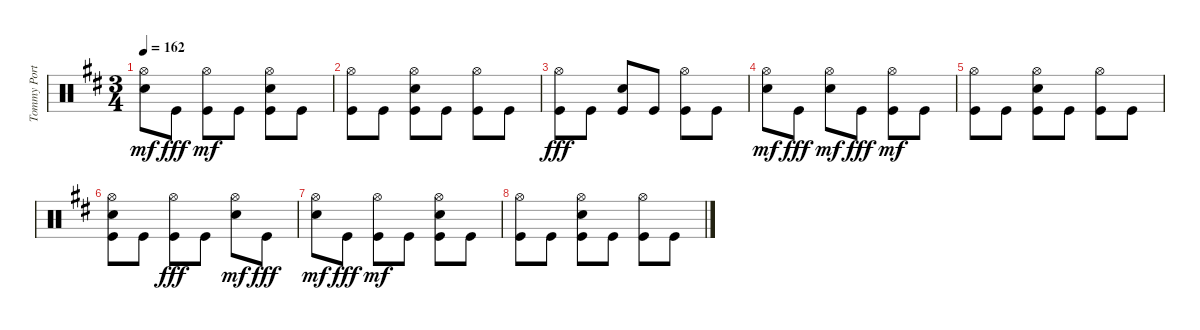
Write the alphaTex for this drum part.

\track ("Tommy Portimo (Drums)" "Tommy Port") {instrument percussion}
\staff {score}
\articulation defaults
\ts (3 4)
\tempo 162
\clef neutral
\ks d
("Hi-Hat (open)" "Electric Snare (hit)").8{dy mf} "Kick (hit)".8{dy fff} ("Hi-Hat (open)" "Kick (hit)").8{dy mf} "Kick (hit)".8 ("Electric Snare (hit)" "Hi-Hat (open)" "Kick (hit)").8 "Kick (hit)".8 |
("Hi-Hat (open)" "Kick (hit)").8 "Kick (hit)".8 ("Electric Snare (hit)" "Hi-Hat (open)" "Kick (hit)").8 "Kick (hit)".8 ("Hi-Hat (open)" "Kick (hit)").8 "Kick (hit)".8 |
("Hi-Hat (open)" "Kick (hit)").8{dy fff} "Kick (hit)".8 ("Electric Snare (hit)" "Kick (hit)").8 "Kick (hit)".8 ("Hi-Hat (open)" "Kick (hit)").8 "Kick (hit)".8 |
("Hi-Hat (open)" "Electric Snare (hit)").8{dy mf} "Kick (hit)".8{dy fff} ("Hi-Hat (open)" "Electric Snare (hit)").8{dy mf} "Kick (hit)".8{dy fff} ("Kick (hit)" "Hi-Hat (open)").8{dy mf} "Kick (hit)".8 |
("Hi-Hat (open)" "Kick (hit)").8 "Kick (hit)".8 ("Electric Snare (hit)" "Hi-Hat (open)" "Kick (hit)").8 "Kick (hit)".8 ("Hi-Hat (open)" "Kick (hit)").8 "Kick (hit)".8 |
("Hi-Hat (open)" "Electric Snare (hit)" "Kick (hit)").8 "Kick (hit)".8 ("Hi-Hat (open)" "Kick (hit)").8{dy fff} "Kick (hit)".8 ("Hi-Hat (open)" "Electric Snare (hit)").8{dy mf} "Kick (hit)".8{dy fff} |
("Hi-Hat (open)" "Electric Snare (hit)").8{dy mf} "Kick (hit)".8{dy fff} ("Hi-Hat (open)" "Kick (hit)").8{dy mf} "Kick (hit)".8 ("Electric Snare (hit)" "Hi-Hat (open)" "Kick (hit)").8 "Kick (hit)".8 |
("Hi-Hat (open)" "Kick (hit)").8 "Kick (hit)".8 ("Electric Snare (hit)" "Hi-Hat (open)" "Kick (hit)").8 "Kick (hit)".8 ("Hi-Hat (open)" "Kick (hit)").8 "Kick (hit)".8
